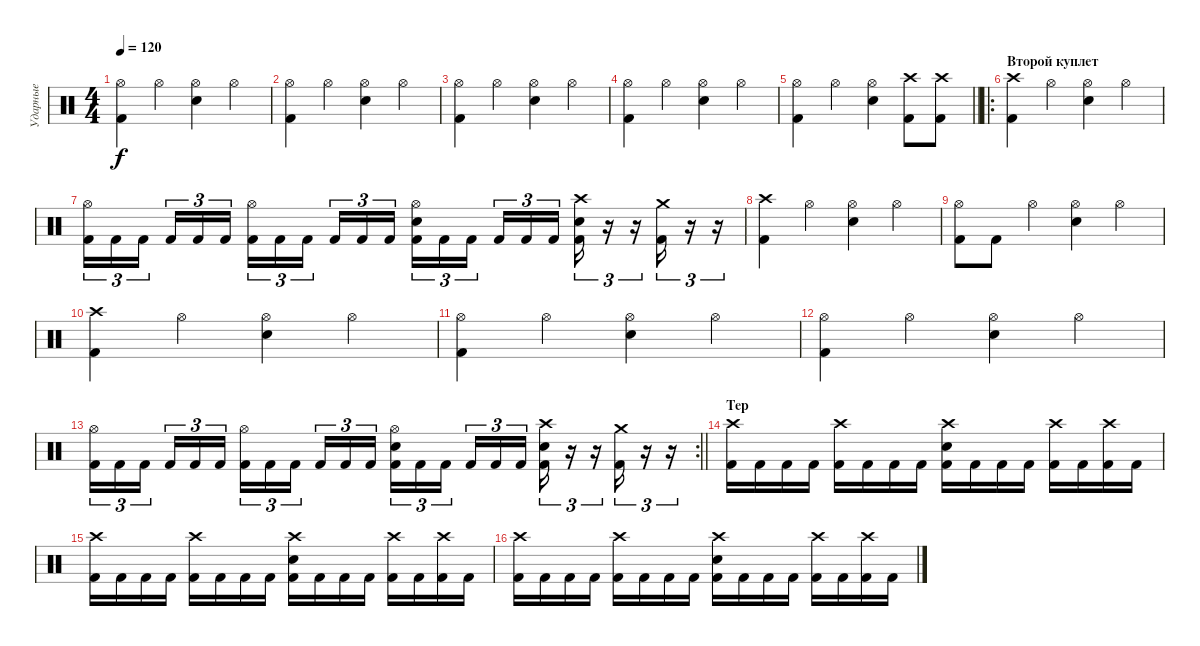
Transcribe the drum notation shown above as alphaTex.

\track ("Ударные" "Ударные") {instrument percussion}
\staff {score}
\articulation defaults
\ts (4 4)
\tempo 120
\clef neutral
\ks c
("Hi-Hat (open)" "Kick (hit) 2").4{dy f} "Hi-Hat (open)".4 ("Hi-Hat (open)" "Snare (hit) 2").4 "Hi-Hat (open)".4 |
("Hi-Hat (open)" "Kick (hit) 2").4 "Hi-Hat (open)".4 ("Hi-Hat (open)" "Snare (hit) 2").4 "Hi-Hat (open)".4 |
("Hi-Hat (open)" "Kick (hit) 2").4 "Hi-Hat (open)".4 ("Hi-Hat (open)" "Snare (hit) 2").4 "Hi-Hat (open)".4 |
("Hi-Hat (open)" "Kick (hit) 2").4 "Hi-Hat (open)".4 ("Hi-Hat (open)" "Snare (hit) 2").4 "Hi-Hat (open)".4 |
\barLineRight lightlight
("Hi-Hat (open)" "Kick (hit) 2").4 "Hi-Hat (open)".4 ("Hi-Hat (open)" "Snare (hit) 2").4 ("Crash high (hit)" "Kick (hit) 2").8 ("Crash high (hit)" "Kick (hit) 2").8 |
\ro
\section ("" "Второй куплет")
("Crash high (hit)" "Kick (hit) 2").4 "Hi-Hat (open)".4 ("Hi-Hat (open)" "Snare (hit) 2").4 "Hi-Hat (open)".4 |
("Hi-Hat (open)" "Kick (hit) 2").16{tu (3 2)} "Kick (hit) 2".16{tu (3 2)} "Kick (hit) 2".16{tu (3 2) beam splitsecondary} "Kick (hit) 2".16{tu (3 2)} "Kick (hit) 2".16{tu (3 2)} "Kick (hit) 2".16{tu (3 2)} ("Hi-Hat (open)" "Kick (hit) 2").16{tu (3 2)} "Kick (hit) 2".16{tu (3 2)} "Kick (hit) 2".16{tu (3 2) beam splitsecondary} "Kick (hit) 2".16{tu (3 2)} "Kick (hit) 2".16{tu (3 2)} "Kick (hit) 2".16{tu (3 2)} ("Hi-Hat (open)" "Snare (hit) 2" "Kick (hit) 2").16{tu (3 2)} "Kick (hit) 2".16{tu (3 2)} "Kick (hit) 2".16{tu (3 2) beam splitsecondary} "Kick (hit) 2".16{tu (3 2)} "Kick (hit) 2".16{tu (3 2)} "Kick (hit) 2".16{tu (3 2)} ("Crash high (hit)" "Snare (hit) 2" "Kick (hit) 2").16{tu (3 2)} r.16{tu (3 2)} r.16{tu (3 2)} ("Crash medium (hit)" "Kick (hit) 2").16{tu (3 2)} r.16{tu (3 2)} r.16{tu (3 2)} |
("Crash high (hit)" "Kick (hit) 2").4 "Hi-Hat (open)".4 ("Hi-Hat (open)" "Snare (hit) 2").4 "Hi-Hat (open)".4 |
("Hi-Hat (open)" "Kick (hit) 2").8 "Kick (hit) 2".8 "Hi-Hat (open)".4 ("Hi-Hat (open)" "Snare (hit) 2").4 "Hi-Hat (open)".4 |
("Crash high (hit)" "Kick (hit) 2").4 "Hi-Hat (open)".4 ("Hi-Hat (open)" "Snare (hit) 2").4 "Hi-Hat (open)".4 |
("Hi-Hat (open)" "Kick (hit) 2").4 "Hi-Hat (open)".4 ("Hi-Hat (open)" "Snare (hit) 2").4 "Hi-Hat (open)".4 |
("Hi-Hat (open)" "Kick (hit) 2").4 "Hi-Hat (open)".4 ("Hi-Hat (open)" "Snare (hit) 2").4 "Hi-Hat (open)".4 |
\rc 2
\barLineRight lightlight
("Hi-Hat (open)" "Kick (hit) 2").16{tu (3 2)} "Kick (hit) 2".16{tu (3 2)} "Kick (hit) 2".16{tu (3 2) beam splitsecondary} "Kick (hit) 2".16{tu (3 2)} "Kick (hit) 2".16{tu (3 2)} "Kick (hit) 2".16{tu (3 2)} ("Hi-Hat (open)" "Kick (hit) 2").16{tu (3 2)} "Kick (hit) 2".16{tu (3 2)} "Kick (hit) 2".16{tu (3 2) beam splitsecondary} "Kick (hit) 2".16{tu (3 2)} "Kick (hit) 2".16{tu (3 2)} "Kick (hit) 2".16{tu (3 2)} ("Hi-Hat (open)" "Snare (hit) 2" "Kick (hit) 2").16{tu (3 2)} "Kick (hit) 2".16{tu (3 2)} "Kick (hit) 2".16{tu (3 2) beam splitsecondary} "Kick (hit) 2".16{tu (3 2)} "Kick (hit) 2".16{tu (3 2)} "Kick (hit) 2".16{tu (3 2)} ("Crash high (hit)" "Snare (hit) 2" "Kick (hit) 2").16{tu (3 2)} r.16{tu (3 2)} r.16{tu (3 2)} ("Crash medium (hit)" "Kick (hit) 2").16{tu (3 2)} r.16{tu (3 2)} r.16{tu (3 2)} |
\section ("" "Tep")
("Crash high (hit)" "Kick (hit) 2").16 "Kick (hit) 2".16 "Kick (hit) 2".16 "Kick (hit) 2".16 ("Crash high (hit)" "Kick (hit) 2").16 "Kick (hit) 2".16 "Kick (hit) 2".16 "Kick (hit) 2".16 ("Crash high (hit)" "Snare (hit) 2" "Kick (hit) 2").16 "Kick (hit) 2".16 "Kick (hit) 2".16 "Kick (hit) 2".16 ("Crash high (hit)" "Kick (hit) 2").16 "Kick (hit) 2".16 ("Crash high (hit)" "Kick (hit) 2").16 "Kick (hit) 2".16 |
("Crash high (hit)" "Kick (hit) 2").16 "Kick (hit) 2".16 "Kick (hit) 2".16 "Kick (hit) 2".16 ("Crash high (hit)" "Kick (hit) 2").16 "Kick (hit) 2".16 "Kick (hit) 2".16 "Kick (hit) 2".16 ("Crash high (hit)" "Snare (hit) 2" "Kick (hit) 2").16 "Kick (hit) 2".16 "Kick (hit) 2".16 "Kick (hit) 2".16 ("Crash high (hit)" "Kick (hit) 2").16 "Kick (hit) 2".16 ("Crash high (hit)" "Kick (hit) 2").16 "Kick (hit) 2".16 |
("Crash high (hit)" "Kick (hit) 2").16 "Kick (hit) 2".16 "Kick (hit) 2".16 "Kick (hit) 2".16 ("Crash high (hit)" "Kick (hit) 2").16 "Kick (hit) 2".16 "Kick (hit) 2".16 "Kick (hit) 2".16 ("Crash high (hit)" "Snare (hit) 2" "Kick (hit) 2").16 "Kick (hit) 2".16 "Kick (hit) 2".16 "Kick (hit) 2".16 ("Crash high (hit)" "Kick (hit) 2").16 "Kick (hit) 2".16 ("Crash high (hit)" "Kick (hit) 2").16 "Kick (hit) 2".16
